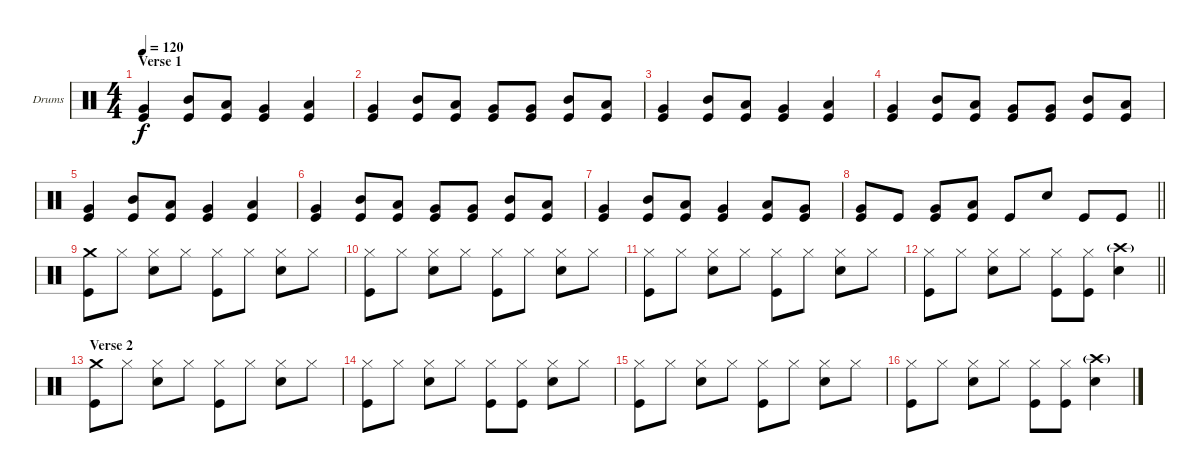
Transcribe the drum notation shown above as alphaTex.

\bracketExtendMode groupsimilarinstruments
\firstSystemTrackNameOrientation horizontal
\otherSystemsTrackNameOrientation horizontal
\track ("Drumkit" "Drums") {instrument percussion}
\staff {score}
\articulation defaults
\ts (4 4)
\section ("" "Verse 1")
\tempo 120
\clef neutral
\ks c
("Kick (hit)" "Very Low Tom (hit)").4{dy f} ("Kick (hit)" "Mid Tom (hit)").8 ("Kick (hit)" "Low Tom (hit)").8 ("Kick (hit)" "Very Low Tom (hit)").4 ("Kick (hit)" "Low Tom (hit)").4 |
("Kick (hit)" "Very Low Tom (hit)").4 ("Kick (hit)" "Mid Tom (hit)").8 ("Kick (hit)" "Low Tom (hit)").8 ("Kick (hit)" "Very Low Tom (hit)").8 ("Kick (hit)" "Very Low Tom (hit)").8 ("Kick (hit)" "Mid Tom (hit)").8 ("Kick (hit)" "Low Tom (hit)").8 |
("Kick (hit)" "Very Low Tom (hit)").4 ("Kick (hit)" "Mid Tom (hit)").8 ("Kick (hit)" "Low Tom (hit)").8 ("Kick (hit)" "Very Low Tom (hit)").4 ("Kick (hit)" "Low Tom (hit)").4 |
("Kick (hit)" "Very Low Tom (hit)").4 ("Kick (hit)" "Mid Tom (hit)").8 ("Kick (hit)" "Low Tom (hit)").8 ("Kick (hit)" "Very Low Tom (hit)").8 ("Kick (hit)" "Very Low Tom (hit)").8 ("Kick (hit)" "Mid Tom (hit)").8 ("Kick (hit)" "Low Tom (hit)").8 |
("Kick (hit)" "Very Low Tom (hit)").4 ("Kick (hit)" "Mid Tom (hit)").8 ("Kick (hit)" "Low Tom (hit)").8 ("Kick (hit)" "Very Low Tom (hit)").4 ("Kick (hit)" "Low Tom (hit)").4 |
("Kick (hit)" "Very Low Tom (hit)").4 ("Kick (hit)" "Mid Tom (hit)").8 ("Kick (hit)" "Low Tom (hit)").8 ("Kick (hit)" "Very Low Tom (hit)").8 ("Kick (hit)" "Very Low Tom (hit)").8 ("Kick (hit)" "Mid Tom (hit)").8 ("Kick (hit)" "Low Tom (hit)").8 |
("Kick (hit)" "Very Low Tom (hit)").4 ("Kick (hit)" "Mid Tom (hit)").8 ("Kick (hit)" "Low Tom (hit)").8 ("Kick (hit)" "Very Low Tom (hit)").4 ("Kick (hit)" "Low Tom (hit)").8 ("Kick (hit)" "Very Low Tom (hit)").8 |
\barLineRight lightlight
("Kick (hit)" "Very Low Tom (hit)").8 "Kick (hit)".8 ("Kick (hit)" "Very Low Tom (hit)").8 ("Kick (hit)" "Low Tom (hit)").8 "Kick (hit)".8 "Snare (hit) 2".8 "Kick (hit)".8 "Kick (hit)".8 |
("Crash medium (hit)" "Kick (hit)").8 "Hi-Hat (closed)".8 ("Hi-Hat (closed)" "Snare (hit) 2").8 "Hi-Hat (closed)".8 ("Hi-Hat (closed)" "Kick (hit)").8 "Hi-Hat (closed)".8 ("Hi-Hat (closed)" "Snare (hit) 2").8 "Hi-Hat (closed)".8 |
("Hi-Hat (closed)" "Kick (hit)").8 "Hi-Hat (closed)".8 ("Hi-Hat (closed)" "Snare (hit) 2").8 "Hi-Hat (closed)".8 ("Hi-Hat (closed)" "Kick (hit)").8 "Hi-Hat (closed)".8 ("Hi-Hat (closed)" "Snare (hit) 2").8 "Hi-Hat (closed)".8 |
("Hi-Hat (closed)" "Kick (hit)").8 "Hi-Hat (closed)".8 ("Hi-Hat (closed)" "Snare (hit) 2").8 "Hi-Hat (closed)".8 ("Hi-Hat (closed)" "Kick (hit)").8 "Hi-Hat (closed)".8 ("Hi-Hat (closed)" "Snare (hit) 2").8 "Hi-Hat (closed)".8 |
\barLineRight lightlight
("Hi-Hat (closed)" "Kick (hit)").8 "Hi-Hat (closed)".8 ("Hi-Hat (closed)" "Snare (hit) 2").8 "Hi-Hat (closed)".8 ("Hi-Hat (closed)" "Kick (hit)").8 ("Hi-Hat (closed)" "Kick (hit)").8 ("Crash high (hit)"{g} "Snare (hit) 2").4 |
\section ("" "Verse 2")
("Crash medium (hit)" "Kick (hit)").8 "Hi-Hat (closed)".8 ("Hi-Hat (closed)" "Snare (hit) 2").8 "Hi-Hat (closed)".8 ("Hi-Hat (closed)" "Kick (hit)").8 "Hi-Hat (closed)".8 ("Hi-Hat (closed)" "Snare (hit) 2").8 "Hi-Hat (closed)".8 |
("Hi-Hat (closed)" "Kick (hit)").8 "Hi-Hat (closed)".8 ("Hi-Hat (closed)" "Snare (hit) 2").8 "Hi-Hat (closed)".8 ("Hi-Hat (closed)" "Kick (hit)").8 ("Hi-Hat (closed)" "Kick (hit)").8 ("Hi-Hat (closed)" "Snare (hit) 2").8 "Hi-Hat (closed)".8 |
("Hi-Hat (closed)" "Kick (hit)").8 "Hi-Hat (closed)".8 ("Hi-Hat (closed)" "Snare (hit) 2").8 "Hi-Hat (closed)".8 ("Hi-Hat (closed)" "Kick (hit)").8 "Hi-Hat (closed)".8 ("Hi-Hat (closed)" "Snare (hit) 2").8 "Hi-Hat (closed)".8 |
("Hi-Hat (closed)" "Kick (hit)").8 "Hi-Hat (closed)".8 ("Hi-Hat (closed)" "Snare (hit) 2").8 "Hi-Hat (closed)".8 ("Hi-Hat (closed)" "Kick (hit)").8 ("Hi-Hat (closed)" "Kick (hit)").8 ("Crash high (hit)"{g} "Snare (hit) 2").4
